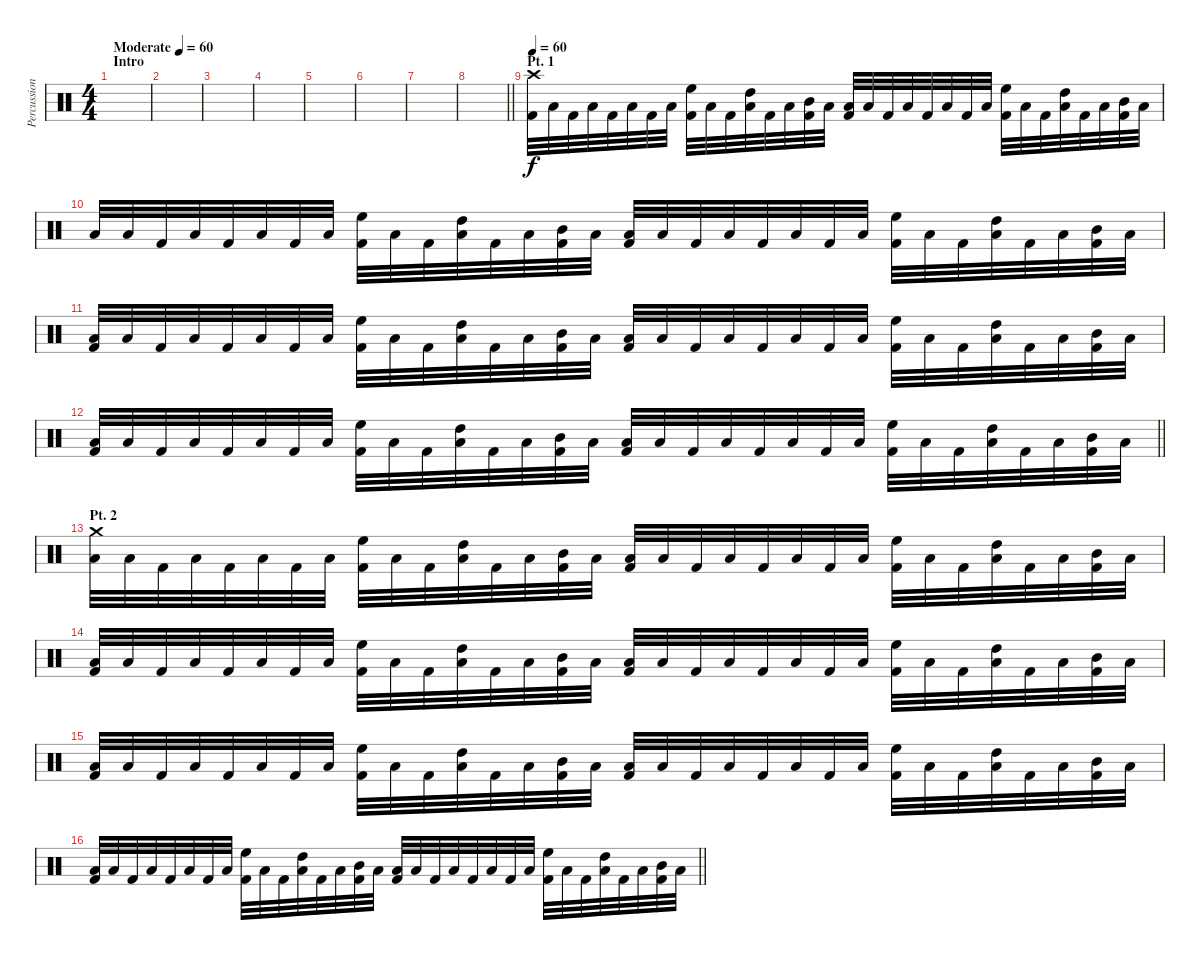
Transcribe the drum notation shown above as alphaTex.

\track ("Percussion" "Percussion") {instrument percussion}
\staff {score}
\articulation defaults
\ts (4 4)
\section ("" "Intro")
\tempo (60 "Moderate")
\tempo 55
\tempo (60 "Moderate")
\clef neutral
\ks c
|
|
|
|
|
|
|
\barLineRight lightlight
|
\section ("" "Pt. 1")
\tempo 60
("Kick (hit) 2" "Crash high (hit)").32 "Low Floor Tom (hit)".32 "Kick (hit) 2".32 "Low Floor Tom (hit)".32 "Kick (hit) 2".32 "Low Floor Tom (hit)".32 "Kick (hit) 2".32 "Low Floor Tom (hit)".32 ("Kick (hit) 2" "High Floor Tom (hit)").32 "Low Floor Tom (hit)".32 "Kick (hit) 2".32 ("Low Floor Tom (hit)" "High Tom (hit)").32 "Kick (hit) 2".32 "Low Floor Tom (hit)".32 ("Kick (hit) 2" "Mid Tom (hit)").32 "Low Floor Tom (hit)".32 ("Kick (hit) 2" "Low Tom (hit)").32 "Low Floor Tom (hit)".32 "Kick (hit) 2".32 "Low Floor Tom (hit)".32 "Kick (hit) 2".32 "Low Floor Tom (hit)".32 "Kick (hit) 2".32 "Low Floor Tom (hit)".32 ("Kick (hit) 2" "High Floor Tom (hit)").32 "Low Floor Tom (hit)".32 "Kick (hit) 2".32 ("Low Floor Tom (hit)" "High Tom (hit)").32 "Kick (hit) 2".32 "Low Floor Tom (hit)".32 ("Kick (hit) 2" "Mid Tom (hit)").32 "Low Floor Tom (hit)".32 |
"Low Tom (hit)".32 "Low Floor Tom (hit)".32 "Kick (hit) 2".32 "Low Floor Tom (hit)".32 "Kick (hit) 2".32 "Low Floor Tom (hit)".32 "Kick (hit) 2".32 "Low Floor Tom (hit)".32 ("Kick (hit) 2" "High Floor Tom (hit)").32 "Low Floor Tom (hit)".32 "Kick (hit) 2".32 ("Low Floor Tom (hit)" "High Tom (hit)").32 "Kick (hit) 2".32 "Low Floor Tom (hit)".32 ("Kick (hit) 2" "Mid Tom (hit)").32 "Low Floor Tom (hit)".32 ("Kick (hit) 2" "Low Tom (hit)").32 "Low Floor Tom (hit)".32 "Kick (hit) 2".32 "Low Floor Tom (hit)".32 "Kick (hit) 2".32 "Low Floor Tom (hit)".32 "Kick (hit) 2".32 "Low Floor Tom (hit)".32 ("Kick (hit) 2" "High Floor Tom (hit)").32 "Low Floor Tom (hit)".32 "Kick (hit) 2".32 ("Low Floor Tom (hit)" "High Tom (hit)").32 "Kick (hit) 2".32 "Low Floor Tom (hit)".32 ("Kick (hit) 2" "Mid Tom (hit)").32 "Low Floor Tom (hit)".32 |
("Kick (hit) 2" "Low Tom (hit)").32 "Low Floor Tom (hit)".32 "Kick (hit) 2".32 "Low Floor Tom (hit)".32 "Kick (hit) 2".32 "Low Floor Tom (hit)".32 "Kick (hit) 2".32 "Low Floor Tom (hit)".32 ("Kick (hit) 2" "High Floor Tom (hit)").32 "Low Floor Tom (hit)".32 "Kick (hit) 2".32 ("Low Floor Tom (hit)" "High Tom (hit)").32 "Kick (hit) 2".32 "Low Floor Tom (hit)".32 ("Kick (hit) 2" "Mid Tom (hit)").32 "Low Floor Tom (hit)".32 ("Kick (hit) 2" "Low Tom (hit)").32 "Low Floor Tom (hit)".32 "Kick (hit) 2".32 "Low Floor Tom (hit)".32 "Kick (hit) 2".32 "Low Floor Tom (hit)".32 "Kick (hit) 2".32 "Low Floor Tom (hit)".32 ("Kick (hit) 2" "High Floor Tom (hit)").32 "Low Floor Tom (hit)".32 "Kick (hit) 2".32 ("Low Floor Tom (hit)" "High Tom (hit)").32 "Kick (hit) 2".32 "Low Floor Tom (hit)".32 ("Kick (hit) 2" "Mid Tom (hit)").32 "Low Floor Tom (hit)".32 |
\barLineRight lightlight
("Kick (hit) 2" "Low Tom (hit)").32 "Low Floor Tom (hit)".32 "Kick (hit) 2".32 "Low Floor Tom (hit)".32 "Kick (hit) 2".32 "Low Floor Tom (hit)".32 "Kick (hit) 2".32 "Low Floor Tom (hit)".32 ("Kick (hit) 2" "High Floor Tom (hit)").32 "Low Floor Tom (hit)".32 "Kick (hit) 2".32 ("Low Floor Tom (hit)" "High Tom (hit)").32 "Kick (hit) 2".32 "Low Floor Tom (hit)".32 ("Kick (hit) 2" "Mid Tom (hit)").32 "Low Floor Tom (hit)".32 ("Kick (hit) 2" "Low Tom (hit)").32 "Low Floor Tom (hit)".32 "Kick (hit) 2".32 "Low Floor Tom (hit)".32 "Kick (hit) 2".32 "Low Floor Tom (hit)".32 "Kick (hit) 2".32 "Low Floor Tom (hit)".32 ("Kick (hit) 2" "High Floor Tom (hit)").32 "Low Floor Tom (hit)".32 "Kick (hit) 2".32 ("Low Floor Tom (hit)" "High Tom (hit)").32 "Kick (hit) 2".32 "Low Floor Tom (hit)".32 ("Kick (hit) 2" "Mid Tom (hit)").32 "Low Floor Tom (hit)".32 |
\section ("" "Pt. 2")
("Crash medium (hit)" "Low Tom (hit)").32 "Low Floor Tom (hit)".32 "Kick (hit) 2".32 "Low Floor Tom (hit)".32 "Kick (hit) 2".32 "Low Floor Tom (hit)".32 "Kick (hit) 2".32 "Low Floor Tom (hit)".32 ("Kick (hit) 2" "High Floor Tom (hit)").32 "Low Floor Tom (hit)".32 "Kick (hit) 2".32 ("Low Floor Tom (hit)" "High Tom (hit)").32 "Kick (hit) 2".32 "Low Floor Tom (hit)".32 ("Kick (hit) 2" "Mid Tom (hit)").32 "Low Floor Tom (hit)".32 ("Kick (hit) 2" "Low Tom (hit)").32 "Low Floor Tom (hit)".32 "Kick (hit) 2".32 "Low Floor Tom (hit)".32 "Kick (hit) 2".32 "Low Floor Tom (hit)".32 "Kick (hit) 2".32 "Low Floor Tom (hit)".32 ("Kick (hit) 2" "High Floor Tom (hit)").32 "Low Floor Tom (hit)".32 "Kick (hit) 2".32 ("Low Floor Tom (hit)" "High Tom (hit)").32 "Kick (hit) 2".32 "Low Floor Tom (hit)".32 ("Kick (hit) 2" "Mid Tom (hit)").32 "Low Floor Tom (hit)".32 |
("Kick (hit) 2" "Low Tom (hit)").32 "Low Floor Tom (hit)".32 "Kick (hit) 2".32 "Low Floor Tom (hit)".32 "Kick (hit) 2".32 "Low Floor Tom (hit)".32 "Kick (hit) 2".32 "Low Floor Tom (hit)".32 ("Kick (hit) 2" "High Floor Tom (hit)").32 "Low Floor Tom (hit)".32 "Kick (hit) 2".32 ("Low Floor Tom (hit)" "High Tom (hit)").32 "Kick (hit) 2".32 "Low Floor Tom (hit)".32 ("Kick (hit) 2" "Mid Tom (hit)").32 "Low Floor Tom (hit)".32 ("Kick (hit) 2" "Low Tom (hit)").32 "Low Floor Tom (hit)".32 "Kick (hit) 2".32 "Low Floor Tom (hit)".32 "Kick (hit) 2".32 "Low Floor Tom (hit)".32 "Kick (hit) 2".32 "Low Floor Tom (hit)".32 ("Kick (hit) 2" "High Floor Tom (hit)").32 "Low Floor Tom (hit)".32 "Kick (hit) 2".32 ("Low Floor Tom (hit)" "High Tom (hit)").32 "Kick (hit) 2".32 "Low Floor Tom (hit)".32 ("Kick (hit) 2" "Mid Tom (hit)").32 "Low Floor Tom (hit)".32 |
("Kick (hit) 2" "Low Tom (hit)").32 "Low Floor Tom (hit)".32 "Kick (hit) 2".32 "Low Floor Tom (hit)".32 "Kick (hit) 2".32 "Low Floor Tom (hit)".32 "Kick (hit) 2".32 "Low Floor Tom (hit)".32 ("Kick (hit) 2" "High Floor Tom (hit)").32 "Low Floor Tom (hit)".32 "Kick (hit) 2".32 ("Low Floor Tom (hit)" "High Tom (hit)").32 "Kick (hit) 2".32 "Low Floor Tom (hit)".32 ("Kick (hit) 2" "Mid Tom (hit)").32 "Low Floor Tom (hit)".32 ("Kick (hit) 2" "Low Tom (hit)").32 "Low Floor Tom (hit)".32 "Kick (hit) 2".32 "Low Floor Tom (hit)".32 "Kick (hit) 2".32 "Low Floor Tom (hit)".32 "Kick (hit) 2".32 "Low Floor Tom (hit)".32 ("Kick (hit) 2" "High Floor Tom (hit)").32 "Low Floor Tom (hit)".32 "Kick (hit) 2".32 ("Low Floor Tom (hit)" "High Tom (hit)").32 "Kick (hit) 2".32 "Low Floor Tom (hit)".32 ("Kick (hit) 2" "Mid Tom (hit)").32 "Low Floor Tom (hit)".32 |
\barLineRight lightlight
("Kick (hit) 2" "Low Tom (hit)").32 "Low Floor Tom (hit)".32 "Kick (hit) 2".32 "Low Floor Tom (hit)".32 "Kick (hit) 2".32 "Low Floor Tom (hit)".32 "Kick (hit) 2".32 "Low Floor Tom (hit)".32 ("Kick (hit) 2" "High Floor Tom (hit)").32 "Low Floor Tom (hit)".32 "Kick (hit) 2".32 ("Low Floor Tom (hit)" "High Tom (hit)").32 "Kick (hit) 2".32 "Low Floor Tom (hit)".32 ("Kick (hit) 2" "Mid Tom (hit)").32 "Low Floor Tom (hit)".32 ("Kick (hit) 2" "Low Tom (hit)").32 "Low Floor Tom (hit)".32 "Kick (hit) 2".32 "Low Floor Tom (hit)".32 "Kick (hit) 2".32 "Low Floor Tom (hit)".32 "Kick (hit) 2".32 "Low Floor Tom (hit)".32 ("Kick (hit) 2" "High Floor Tom (hit)").32 "Low Floor Tom (hit)".32 "Kick (hit) 2".32 ("Low Floor Tom (hit)" "High Tom (hit)").32 "Kick (hit) 2".32 "Low Floor Tom (hit)".32 ("Kick (hit) 2" "Mid Tom (hit)").32 "Low Floor Tom (hit)".32
